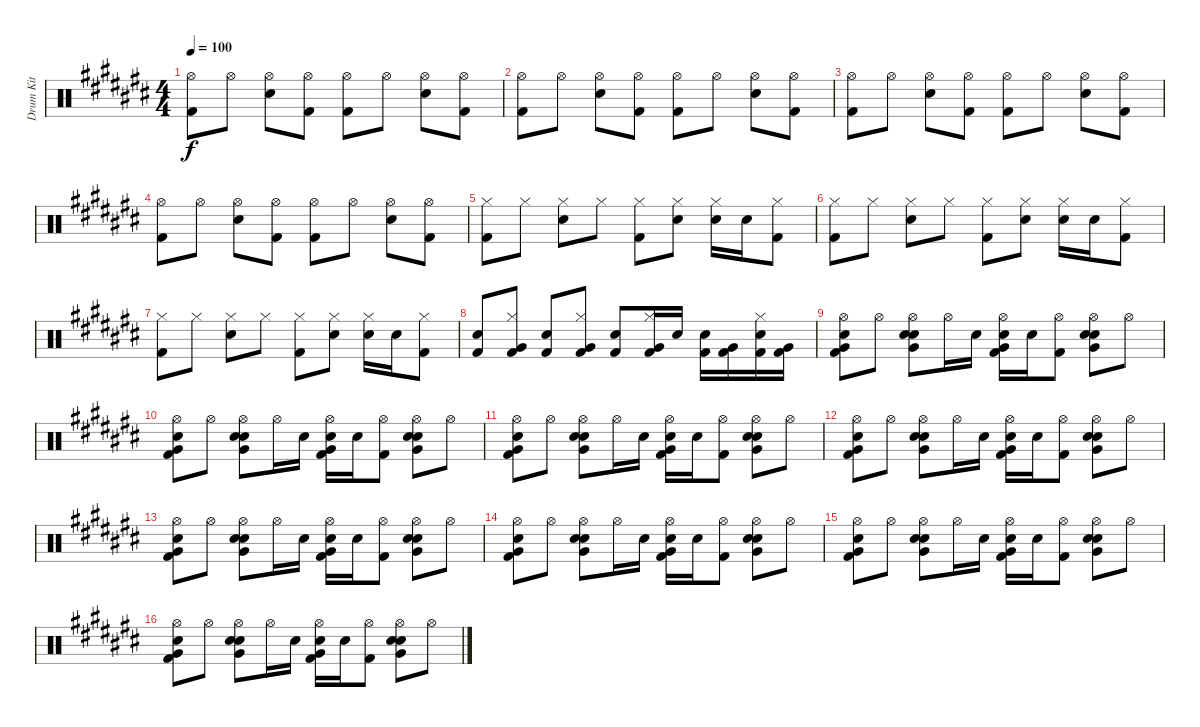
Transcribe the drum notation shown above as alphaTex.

\track ("Drum Kit" "Drum Kit") {instrument percussion}
\staff {score}
\articulation defaults
\ts (4 4)
\tempo 100
\clef neutral
\ks c#
("Hi-Hat (open)" "Kick (hit) 2").8{dy f} "Hi-Hat (open)".8 ("Hi-Hat (open)" "Snare (hit) 2").8 ("Hi-Hat (open)" "Kick (hit) 2").8 ("Hi-Hat (open)" "Kick (hit) 2").8 "Hi-Hat (open)".8 ("Hi-Hat (open)" "Snare (hit) 2").8 ("Hi-Hat (open)" "Kick (hit) 2").8 |
("Hi-Hat (open)" "Kick (hit) 2").8 "Hi-Hat (open)".8 ("Hi-Hat (open)" "Snare (hit) 2").8 ("Hi-Hat (open)" "Kick (hit) 2").8 ("Hi-Hat (open)" "Kick (hit) 2").8 "Hi-Hat (open)".8 ("Hi-Hat (open)" "Snare (hit) 2").8 ("Hi-Hat (open)" "Kick (hit) 2").8 |
("Hi-Hat (open)" "Kick (hit) 2").8 "Hi-Hat (open)".8 ("Hi-Hat (open)" "Snare (hit) 2").8 ("Hi-Hat (open)" "Kick (hit) 2").8 ("Hi-Hat (open)" "Kick (hit) 2").8 "Hi-Hat (open)".8 ("Hi-Hat (open)" "Snare (hit) 2").8 ("Hi-Hat (open)" "Kick (hit) 2").8 |
("Hi-Hat (open)" "Kick (hit) 2").8 "Hi-Hat (open)".8 ("Hi-Hat (open)" "Snare (hit) 2").8 ("Hi-Hat (open)" "Kick (hit) 2").8 ("Hi-Hat (open)" "Kick (hit) 2").8 "Hi-Hat (open)".8 ("Hi-Hat (open)" "Snare (hit) 2").8 ("Hi-Hat (open)" "Kick (hit) 2").8 |
("Hi-Hat (closed)" "Kick (hit) 2").8 "Hi-Hat (closed)".8 ("Hi-Hat (closed)" "Snare (hit) 2").8 "Hi-Hat (closed)".8 ("Hi-Hat (closed)" "Kick (hit) 2").8 ("Hi-Hat (closed)" "Snare (hit) 2").8 ("Hi-Hat (closed)" "Snare (hit) 2").16 "Snare (hit) 2".16 ("Hi-Hat (closed)" "Kick (hit) 2").8 |
("Hi-Hat (closed)" "Kick (hit) 2").8 "Hi-Hat (closed)".8 ("Hi-Hat (closed)" "Snare (hit) 2").8 "Hi-Hat (closed)".8 ("Hi-Hat (closed)" "Kick (hit) 2").8 ("Hi-Hat (closed)" "Snare (hit) 2").8 ("Hi-Hat (closed)" "Snare (hit) 2").16 "Snare (hit) 2".16 ("Hi-Hat (closed)" "Kick (hit) 2").8 |
("Hi-Hat (closed)" "Kick (hit) 2").8 "Hi-Hat (closed)".8 ("Hi-Hat (closed)" "Snare (hit) 2").8 "Hi-Hat (closed)".8 ("Hi-Hat (closed)" "Kick (hit) 2").8 ("Hi-Hat (closed)" "Snare (hit) 2").8 ("Hi-Hat (closed)" "Snare (hit) 2").16 "Snare (hit) 2".16 ("Hi-Hat (closed)" "Kick (hit) 2").8 |
("Snare (hit) 2" "Kick (hit) 2").8 ("Hi-Hat (closed)" "Very Low Tom (hit)" "Kick (hit) 2").8 ("Snare (hit) 2" "Kick (hit) 2").8 ("Hi-Hat (closed)" "Very Low Tom (hit)" "Kick (hit) 2").8 ("Snare (hit) 2" "Kick (hit) 2").8 ("Hi-Hat (closed)" "Very Low Tom (hit)" "Kick (hit) 2").16 "Snare (hit) 2".16 ("Snare (hit) 2" "Kick (hit) 2").16 ("Very Low Tom (hit)" "Kick (hit) 2").16 ("Hi-Hat (closed)" "Snare (hit) 2" "Kick (hit) 2").16 ("Very Low Tom (hit)" "Kick (hit) 2").16 |
("Hi-Hat (open)" "Electric Snare (hit)" "Very Low Tom (hit)" "Kick (hit) 2").8 "Hi-Hat (open)".8 ("Hi-Hat (open)" "Electric Snare (hit)" "Very Low Tom (hit)" "Snare (hit) 2").8 "Hi-Hat (open)".16 "Snare (hit) 2".16 ("Hi-Hat (open)" "Electric Snare (hit)" "Very Low Tom (hit)" "Kick (hit) 2").16 "Snare (hit) 2".16 ("Hi-Hat (open)" "Kick (hit) 2").8 ("Hi-Hat (open)" "Electric Snare (hit)" "Very Low Tom (hit)" "Snare (hit) 2").8 "Hi-Hat (open)".8 |
("Hi-Hat (open)" "Electric Snare (hit)" "Very Low Tom (hit)" "Kick (hit) 2").8 "Hi-Hat (open)".8 ("Hi-Hat (open)" "Electric Snare (hit)" "Very Low Tom (hit)" "Snare (hit) 2").8 "Hi-Hat (open)".16 "Snare (hit) 2".16 ("Hi-Hat (open)" "Electric Snare (hit)" "Very Low Tom (hit)" "Kick (hit) 2").16 "Snare (hit) 2".16 ("Hi-Hat (open)" "Kick (hit) 2").8 ("Hi-Hat (open)" "Electric Snare (hit)" "Very Low Tom (hit)" "Snare (hit) 2").8 "Hi-Hat (open)".8 |
("Hi-Hat (open)" "Electric Snare (hit)" "Very Low Tom (hit)" "Kick (hit) 2").8 "Hi-Hat (open)".8 ("Hi-Hat (open)" "Electric Snare (hit)" "Very Low Tom (hit)" "Snare (hit) 2").8 "Hi-Hat (open)".16 "Snare (hit) 2".16 ("Hi-Hat (open)" "Electric Snare (hit)" "Very Low Tom (hit)" "Kick (hit) 2").16 "Snare (hit) 2".16 ("Hi-Hat (open)" "Kick (hit) 2").8 ("Hi-Hat (open)" "Electric Snare (hit)" "Very Low Tom (hit)" "Snare (hit) 2").8 "Hi-Hat (open)".8 |
("Hi-Hat (open)" "Electric Snare (hit)" "Very Low Tom (hit)" "Kick (hit) 2").8 "Hi-Hat (open)".8 ("Hi-Hat (open)" "Electric Snare (hit)" "Very Low Tom (hit)" "Snare (hit) 2").8 "Hi-Hat (open)".16 "Snare (hit) 2".16 ("Hi-Hat (open)" "Electric Snare (hit)" "Very Low Tom (hit)" "Kick (hit) 2").16 "Snare (hit) 2".16 ("Hi-Hat (open)" "Kick (hit) 2").8 ("Hi-Hat (open)" "Electric Snare (hit)" "Very Low Tom (hit)" "Snare (hit) 2").8 "Hi-Hat (open)".8 |
("Hi-Hat (open)" "Electric Snare (hit)" "Very Low Tom (hit)" "Kick (hit) 2").8 "Hi-Hat (open)".8 ("Hi-Hat (open)" "Electric Snare (hit)" "Very Low Tom (hit)" "Snare (hit) 2").8 "Hi-Hat (open)".16 "Snare (hit) 2".16 ("Hi-Hat (open)" "Electric Snare (hit)" "Very Low Tom (hit)" "Kick (hit) 2").16 "Snare (hit) 2".16 ("Hi-Hat (open)" "Kick (hit) 2").8 ("Hi-Hat (open)" "Electric Snare (hit)" "Very Low Tom (hit)" "Snare (hit) 2").8 "Hi-Hat (open)".8 |
("Hi-Hat (open)" "Electric Snare (hit)" "Very Low Tom (hit)" "Kick (hit) 2").8 "Hi-Hat (open)".8 ("Hi-Hat (open)" "Electric Snare (hit)" "Very Low Tom (hit)" "Snare (hit) 2").8 "Hi-Hat (open)".16 "Snare (hit) 2".16 ("Hi-Hat (open)" "Electric Snare (hit)" "Very Low Tom (hit)" "Kick (hit) 2").16 "Snare (hit) 2".16 ("Hi-Hat (open)" "Kick (hit) 2").8 ("Hi-Hat (open)" "Electric Snare (hit)" "Very Low Tom (hit)" "Snare (hit) 2").8 "Hi-Hat (open)".8 |
("Hi-Hat (open)" "Electric Snare (hit)" "Very Low Tom (hit)" "Kick (hit) 2").8 "Hi-Hat (open)".8 ("Hi-Hat (open)" "Electric Snare (hit)" "Very Low Tom (hit)" "Snare (hit) 2").8 "Hi-Hat (open)".16 "Snare (hit) 2".16 ("Hi-Hat (open)" "Electric Snare (hit)" "Very Low Tom (hit)" "Kick (hit) 2").16 "Snare (hit) 2".16 ("Hi-Hat (open)" "Kick (hit) 2").8 ("Hi-Hat (open)" "Electric Snare (hit)" "Very Low Tom (hit)" "Snare (hit) 2").8 "Hi-Hat (open)".8 |
("Hi-Hat (open)" "Electric Snare (hit)" "Very Low Tom (hit)" "Kick (hit) 2").8 "Hi-Hat (open)".8 ("Hi-Hat (open)" "Electric Snare (hit)" "Very Low Tom (hit)" "Snare (hit) 2").8 "Hi-Hat (open)".16 "Snare (hit) 2".16 ("Hi-Hat (open)" "Electric Snare (hit)" "Very Low Tom (hit)" "Kick (hit) 2").16 "Snare (hit) 2".16 ("Hi-Hat (open)" "Kick (hit) 2").8 ("Hi-Hat (open)" "Electric Snare (hit)" "Very Low Tom (hit)" "Snare (hit) 2").8 "Hi-Hat (open)".8
